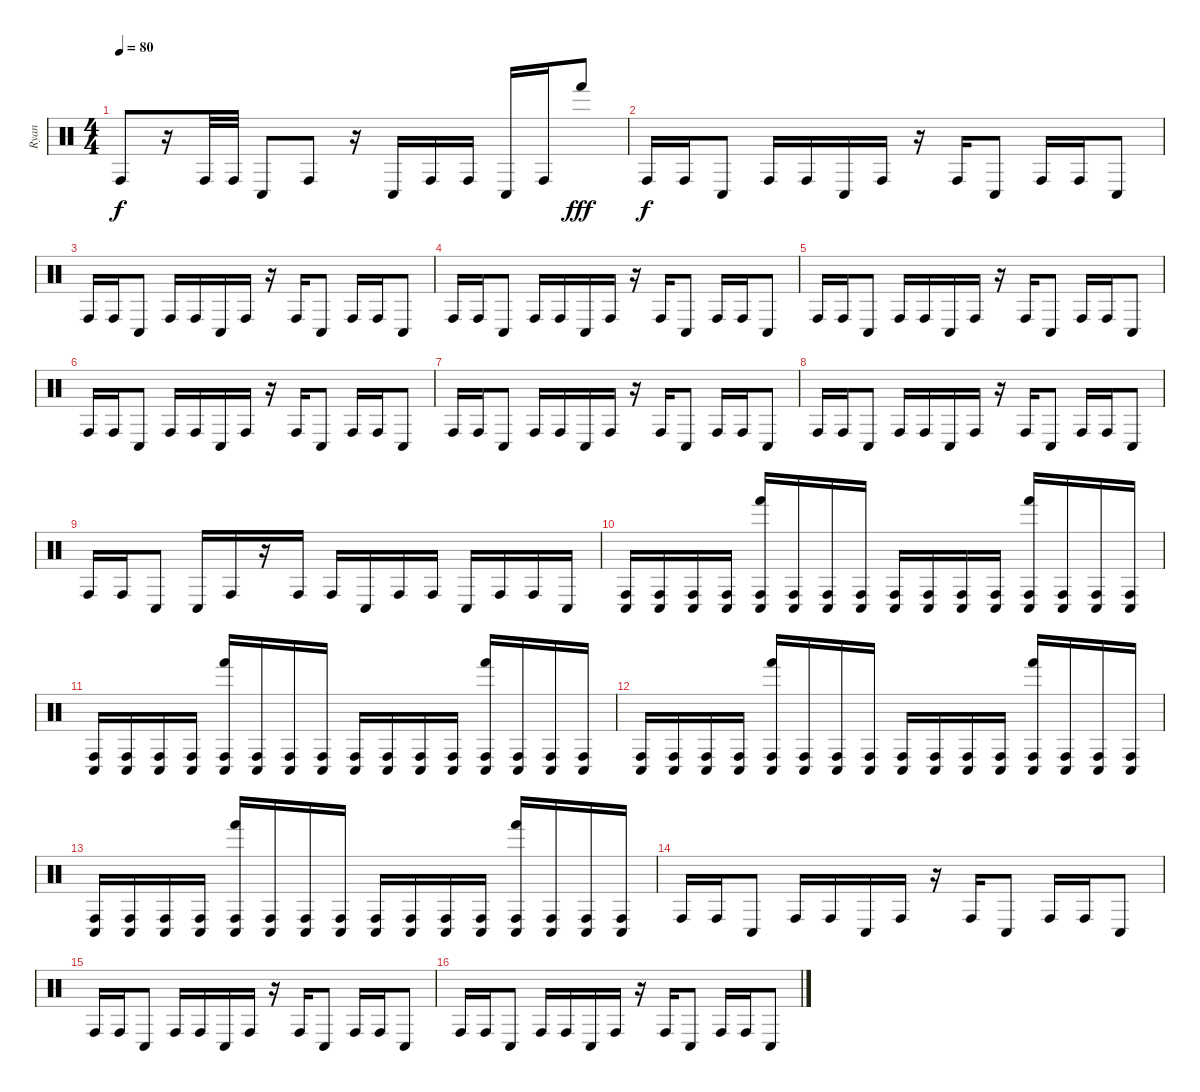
\track ("Ryan" "Ryan") {instrument percussion}
\staff {score}
\articulation defaults
\ts (4 4)
\tempo 80
\clef neutral
\ks c "Conga high (hit)".8{dy f}
r.16 "Conga high (hit)".32 "Conga high (hit)".32 "Conga low (hit)".8 "Conga high (hit)".8 r.16 "Conga low (hit)".16 "Conga high (hit)".16 "Conga high (hit)".16 "Conga low (hit)".16 "Conga high (hit)".16 "Hand (hit)".8{dy fff} |
"Conga high (hit)".16{dy f} "Conga high (hit)".16 "Conga low (hit)".8 "Conga high (hit)".16 "Conga high (hit)".16 "Conga low (hit)".16 "Conga high (hit)".16 r.16 "Conga high (hit)".16 "Conga low (hit)".8 "Conga high (hit)".16 "Conga high (hit)".16 "Conga low (hit)".8 |
"Conga high (hit)".16 "Conga high (hit)".16 "Conga low (hit)".8 "Conga high (hit)".16 "Conga high (hit)".16 "Conga low (hit)".16 "Conga high (hit)".16 r.16 "Conga high (hit)".16 "Conga low (hit)".8 "Conga high (hit)".16 "Conga high (hit)".16 "Conga low (hit)".8 |
"Conga high (hit)".16 "Conga high (hit)".16 "Conga low (hit)".8 "Conga high (hit)".16 "Conga high (hit)".16 "Conga low (hit)".16 "Conga high (hit)".16 r.16 "Conga high (hit)".16 "Conga low (hit)".8 "Conga high (hit)".16 "Conga high (hit)".16 "Conga low (hit)".8 |
"Conga high (hit)".16 "Conga high (hit)".16 "Conga low (hit)".8 "Conga high (hit)".16 "Conga high (hit)".16 "Conga low (hit)".16 "Conga high (hit)".16 r.16 "Conga high (hit)".16 "Conga low (hit)".8 "Conga high (hit)".16 "Conga high (hit)".16 "Conga low (hit)".8 |
"Conga high (hit)".16 "Conga high (hit)".16 "Conga low (hit)".8 "Conga high (hit)".16 "Conga high (hit)".16 "Conga low (hit)".16 "Conga high (hit)".16 r.16 "Conga high (hit)".16 "Conga low (hit)".8 "Conga high (hit)".16 "Conga high (hit)".16 "Conga low (hit)".8 |
"Conga high (hit)".16 "Conga high (hit)".16 "Conga low (hit)".8 "Conga high (hit)".16 "Conga high (hit)".16 "Conga low (hit)".16 "Conga high (hit)".16 r.16 "Conga high (hit)".16 "Conga low (hit)".8 "Conga high (hit)".16 "Conga high (hit)".16 "Conga low (hit)".8 |
"Conga high (hit)".16 "Conga high (hit)".16 "Conga low (hit)".8 "Conga high (hit)".16 "Conga high (hit)".16 "Conga low (hit)".16 "Conga high (hit)".16 r.16 "Conga high (hit)".16 "Conga low (hit)".8 "Conga high (hit)".16 "Conga high (hit)".16 "Conga low (hit)".8 |
"Conga high (hit)".16 "Conga high (hit)".16 "Conga low (hit)".8 "Conga low (hit)".16 "Conga high (hit)".16 r.16 "Conga high (hit)".16 "Conga high (hit)".16 "Conga low (hit)".16 "Conga high (hit)".16 "Conga high (hit)".16 "Conga low (hit)".16 "Conga high (hit)".16 "Conga high (hit)".16 "Conga low (hit)".16 |
("Conga low (hit)" "Conga high (hit)").16 ("Conga low (hit)" "Conga high (hit)").16 ("Conga low (hit)" "Conga high (hit)").16 ("Conga low (hit)" "Conga high (hit)").16 ("Hand (hit)" "Conga low (hit)" "Conga high (hit)").16 ("Conga low (hit)" "Conga high (hit)").16 ("Conga low (hit)" "Conga high (hit)").16 ("Conga low (hit)" "Conga high (hit)").16 ("Conga low (hit)" "Conga high (hit)").16 ("Conga low (hit)" "Conga high (hit)").16 ("Conga low (hit)" "Conga high (hit)").16 ("Conga low (hit)" "Conga high (hit)").16 ("Hand (hit)" "Conga low (hit)" "Conga high (hit)").16 ("Conga low (hit)" "Conga high (hit)").16 ("Conga low (hit)" "Conga high (hit)").16 ("Conga low (hit)" "Conga high (hit)").16 |
("Conga low (hit)" "Conga high (hit)").16 ("Conga low (hit)" "Conga high (hit)").16 ("Conga low (hit)" "Conga high (hit)").16 ("Conga low (hit)" "Conga high (hit)").16 ("Hand (hit)" "Conga low (hit)" "Conga high (hit)").16 ("Conga low (hit)" "Conga high (hit)").16 ("Conga low (hit)" "Conga high (hit)").16 ("Conga low (hit)" "Conga high (hit)").16 ("Conga low (hit)" "Conga high (hit)").16 ("Conga low (hit)" "Conga high (hit)").16 ("Conga low (hit)" "Conga high (hit)").16 ("Conga low (hit)" "Conga high (hit)").16 ("Hand (hit)" "Conga low (hit)" "Conga high (hit)").16 ("Conga low (hit)" "Conga high (hit)").16 ("Conga low (hit)" "Conga high (hit)").16 ("Conga low (hit)" "Conga high (hit)").16 |
("Conga low (hit)" "Conga high (hit)").16 ("Conga low (hit)" "Conga high (hit)").16 ("Conga low (hit)" "Conga high (hit)").16 ("Conga low (hit)" "Conga high (hit)").16 ("Hand (hit)" "Conga low (hit)" "Conga high (hit)").16 ("Conga low (hit)" "Conga high (hit)").16 ("Conga low (hit)" "Conga high (hit)").16 ("Conga low (hit)" "Conga high (hit)").16 ("Conga low (hit)" "Conga high (hit)").16 ("Conga low (hit)" "Conga high (hit)").16 ("Conga low (hit)" "Conga high (hit)").16 ("Conga low (hit)" "Conga high (hit)").16 ("Hand (hit)" "Conga low (hit)" "Conga high (hit)").16 ("Conga low (hit)" "Conga high (hit)").16 ("Conga low (hit)" "Conga high (hit)").16 ("Conga low (hit)" "Conga high (hit)").16 |
("Conga low (hit)" "Conga high (hit)").16 ("Conga low (hit)" "Conga high (hit)").16 ("Conga low (hit)" "Conga high (hit)").16 ("Conga low (hit)" "Conga high (hit)").16 ("Hand (hit)" "Conga low (hit)" "Conga high (hit)").16 ("Conga low (hit)" "Conga high (hit)").16 ("Conga low (hit)" "Conga high (hit)").16 ("Conga low (hit)" "Conga high (hit)").16 ("Conga low (hit)" "Conga high (hit)").16 ("Conga low (hit)" "Conga high (hit)").16 ("Conga low (hit)" "Conga high (hit)").16 ("Conga low (hit)" "Conga high (hit)").16 ("Hand (hit)" "Conga low (hit)" "Conga high (hit)").16 ("Conga low (hit)" "Conga high (hit)").16 ("Conga low (hit)" "Conga high (hit)").16 ("Conga low (hit)" "Conga high (hit)").16 |
"Conga high (hit)".16 "Conga high (hit)".16 "Conga low (hit)".8 "Conga high (hit)".16 "Conga high (hit)".16 "Conga low (hit)".16 "Conga high (hit)".16 r.16 "Conga high (hit)".16 "Conga low (hit)".8 "Conga high (hit)".16 "Conga high (hit)".16 "Conga low (hit)".8 |
"Conga high (hit)".16 "Conga high (hit)".16 "Conga low (hit)".8 "Conga high (hit)".16 "Conga high (hit)".16 "Conga low (hit)".16 "Conga high (hit)".16 r.16 "Conga high (hit)".16 "Conga low (hit)".8 "Conga high (hit)".16 "Conga high (hit)".16 "Conga low (hit)".8 |
"Conga high (hit)".16 "Conga high (hit)".16 "Conga low (hit)".8 "Conga high (hit)".16 "Conga high (hit)".16 "Conga low (hit)".16 "Conga high (hit)".16 r.16 "Conga high (hit)".16 "Conga low (hit)".8 "Conga high (hit)".16 "Conga high (hit)".16 "Conga low (hit)".8
